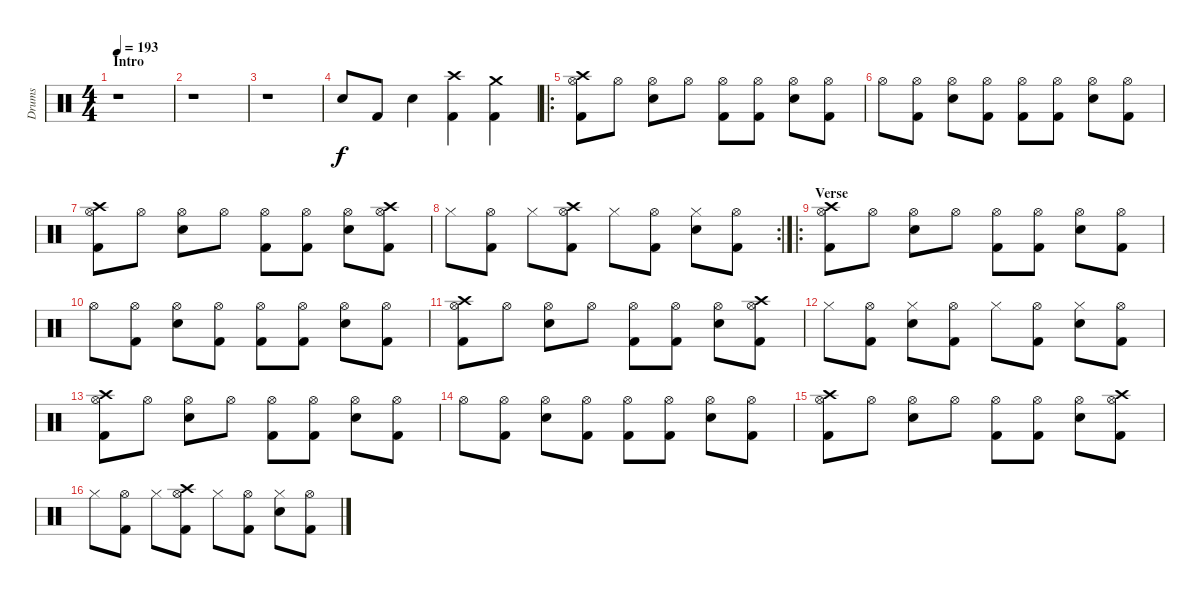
\track ("Drums" "Drums") {instrument percussion}
\staff {score}
\articulation defaults
\ts (4 4)
\section ("" "Intro")
\tempo 193
\clef neutral
\ks c
r.1{dy f} |
r.1 |
r.1 |
"Electric Snare (hit)".8 "Kick (hit) 2".8 "Electric Snare (hit)".4 ("Crash high (hit)" "Kick (hit) 2").4 ("Crash medium (hit)" "Kick (hit) 2").4 |
\ro
("Crash high (hit)" "Hi-Hat (open)" "Kick (hit) 2").8 "Hi-Hat (open)".8 ("Hi-Hat (open)" "Electric Snare (hit)").8 "Hi-Hat (open)".8 ("Hi-Hat (open)" "Kick (hit) 2").8 ("Hi-Hat (open)" "Kick (hit) 2").8 ("Hi-Hat (open)" "Electric Snare (hit)").8 ("Hi-Hat (open)" "Kick (hit) 2").8 |
"Hi-Hat (open)".8 ("Hi-Hat (open)" "Kick (hit) 2").8 ("Hi-Hat (open)" "Electric Snare (hit)").8 ("Hi-Hat (open)" "Kick (hit) 2").8 ("Hi-Hat (open)" "Kick (hit) 2").8 ("Hi-Hat (open)" "Kick (hit) 2").8 ("Hi-Hat (open)" "Electric Snare (hit)").8 ("Hi-Hat (open)" "Kick (hit) 2").8 |
("Crash high (hit)" "Hi-Hat (open)" "Kick (hit) 2").8 "Hi-Hat (open)".8 ("Hi-Hat (open)" "Electric Snare (hit)").8 "Hi-Hat (open)".8 ("Hi-Hat (open)" "Kick (hit) 2").8 ("Hi-Hat (open)" "Kick (hit) 2").8 ("Hi-Hat (open)" "Electric Snare (hit)").8 ("Crash high (hit)" "Hi-Hat (open)" "Kick (hit) 2").8 |
\rc 2 "Hi-Hat (closed)".8
("Hi-Hat (open)" "Kick (hit) 2").8 "Hi-Hat (closed)".8 ("Crash high (hit)" "Hi-Hat (open)" "Kick (hit) 2").8 "Hi-Hat (closed)".8 ("Hi-Hat (open)" "Kick (hit) 2").8 ("Hi-Hat (closed)" "Electric Snare (hit)").8 ("Hi-Hat (open)" "Kick (hit) 2").8 |
\ro
\section ("" "Verse")
("Crash high (hit)" "Hi-Hat (open)" "Kick (hit) 2").8 "Hi-Hat (open)".8 ("Hi-Hat (open)" "Electric Snare (hit)").8 "Hi-Hat (open)".8 ("Hi-Hat (open)" "Kick (hit) 2").8 ("Hi-Hat (open)" "Kick (hit) 2").8 ("Hi-Hat (open)" "Electric Snare (hit)").8 ("Hi-Hat (open)" "Kick (hit) 2").8 |
"Hi-Hat (open)".8 ("Hi-Hat (open)" "Kick (hit) 2").8 ("Hi-Hat (open)" "Electric Snare (hit)").8 ("Hi-Hat (open)" "Kick (hit) 2").8 ("Hi-Hat (open)" "Kick (hit) 2").8 ("Hi-Hat (open)" "Kick (hit) 2").8 ("Hi-Hat (open)" "Electric Snare (hit)").8 ("Hi-Hat (open)" "Kick (hit) 2").8 |
("Crash high (hit)" "Hi-Hat (open)" "Kick (hit) 2").8 "Hi-Hat (open)".8 ("Hi-Hat (open)" "Electric Snare (hit)").8 "Hi-Hat (open)".8 ("Hi-Hat (open)" "Kick (hit) 2").8 ("Hi-Hat (open)" "Kick (hit) 2").8 ("Hi-Hat (open)" "Electric Snare (hit)").8 ("Crash high (hit)" "Hi-Hat (open)" "Kick (hit) 2").8 |
"Hi-Hat (closed)".8 ("Hi-Hat (open)" "Kick (hit) 2").8 ("Hi-Hat (closed)" "Electric Snare (hit)").8 ("Hi-Hat (open)" "Kick (hit) 2").8 "Hi-Hat (closed)".8 ("Hi-Hat (open)" "Kick (hit) 2").8 ("Hi-Hat (closed)" "Electric Snare (hit)").8 ("Hi-Hat (open)" "Kick (hit) 2").8 |
("Crash high (hit)" "Hi-Hat (open)" "Kick (hit) 2").8 "Hi-Hat (open)".8 ("Hi-Hat (open)" "Electric Snare (hit)").8 "Hi-Hat (open)".8 ("Hi-Hat (open)" "Kick (hit) 2").8 ("Hi-Hat (open)" "Kick (hit) 2").8 ("Hi-Hat (open)" "Electric Snare (hit)").8 ("Hi-Hat (open)" "Kick (hit) 2").8 |
"Hi-Hat (open)".8 ("Hi-Hat (open)" "Kick (hit) 2").8 ("Hi-Hat (open)" "Electric Snare (hit)").8 ("Hi-Hat (open)" "Kick (hit) 2").8 ("Hi-Hat (open)" "Kick (hit) 2").8 ("Hi-Hat (open)" "Kick (hit) 2").8 ("Hi-Hat (open)" "Electric Snare (hit)").8 ("Hi-Hat (open)" "Kick (hit) 2").8 |
("Crash high (hit)" "Hi-Hat (open)" "Kick (hit) 2").8 "Hi-Hat (open)".8 ("Hi-Hat (open)" "Electric Snare (hit)").8 "Hi-Hat (open)".8 ("Hi-Hat (open)" "Kick (hit) 2").8 ("Hi-Hat (open)" "Kick (hit) 2").8 ("Hi-Hat (open)" "Electric Snare (hit)").8 ("Crash high (hit)" "Hi-Hat (open)" "Kick (hit) 2").8 |
"Hi-Hat (closed)".8 ("Hi-Hat (open)" "Kick (hit) 2").8 "Hi-Hat (closed)".8 ("Crash high (hit)" "Hi-Hat (open)" "Kick (hit) 2").8 "Hi-Hat (closed)".8 ("Hi-Hat (open)" "Kick (hit) 2").8 ("Hi-Hat (closed)" "Electric Snare (hit)").8 ("Hi-Hat (open)" "Kick (hit) 2").8
